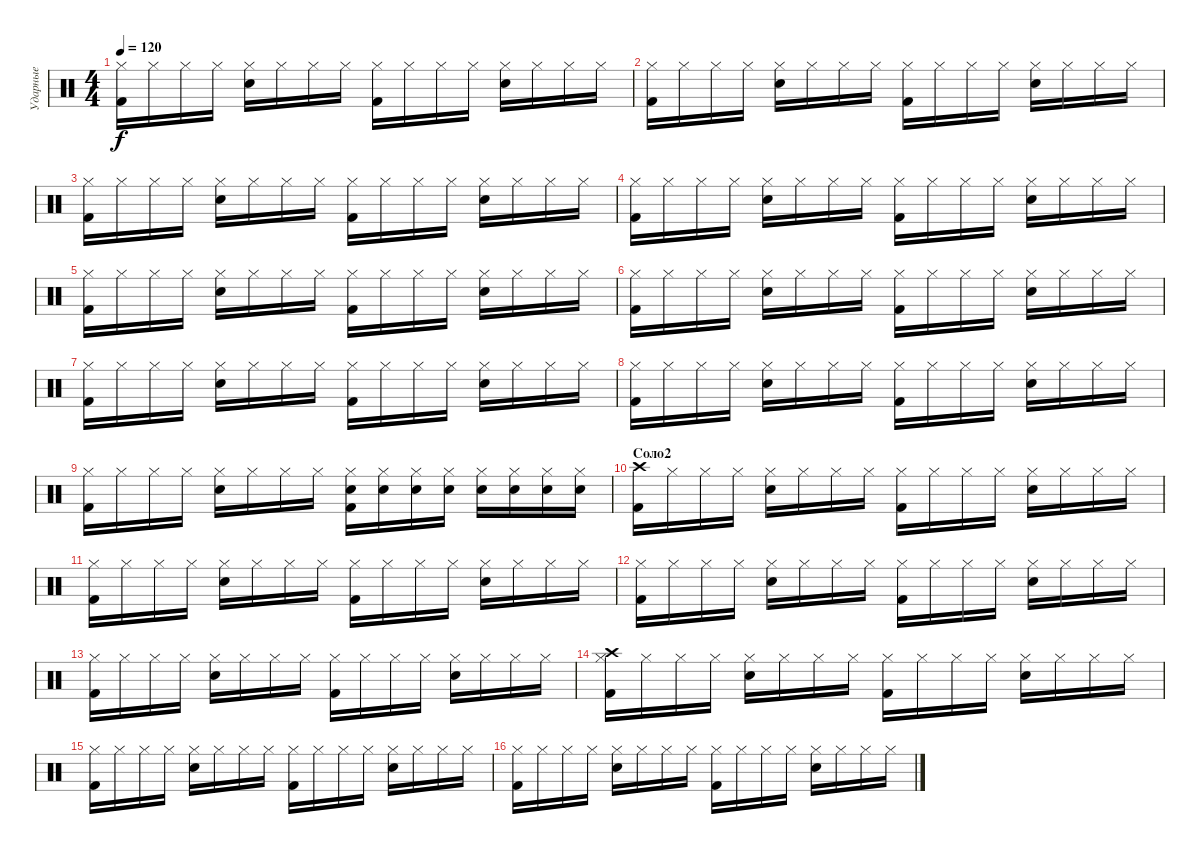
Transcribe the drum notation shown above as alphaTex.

\track ("Ударные" "Ударные") {instrument percussion}
\staff {score}
\articulation defaults
\ts (4 4)
\tempo 120
\clef neutral
\ks c
("Kick (hit) 2" "Hi-Hat (closed)").16{dy f} "Hi-Hat (closed)".16 "Hi-Hat (closed)".16 "Hi-Hat (closed)".16 ("Hi-Hat (closed)" "Snare (hit) 2").16 "Hi-Hat (closed)".16 "Hi-Hat (closed)".16 "Hi-Hat (closed)".16 ("Kick (hit) 2" "Hi-Hat (closed)").16 "Hi-Hat (closed)".16 "Hi-Hat (closed)".16 "Hi-Hat (closed)".16 ("Hi-Hat (closed)" "Snare (hit) 2").16 "Hi-Hat (closed)".16 "Hi-Hat (closed)".16 "Hi-Hat (closed)".16 |
("Kick (hit) 2" "Hi-Hat (closed)").16 "Hi-Hat (closed)".16 "Hi-Hat (closed)".16 "Hi-Hat (closed)".16 ("Hi-Hat (closed)" "Snare (hit) 2").16 "Hi-Hat (closed)".16 "Hi-Hat (closed)".16 "Hi-Hat (closed)".16 ("Kick (hit) 2" "Hi-Hat (closed)").16 "Hi-Hat (closed)".16 "Hi-Hat (closed)".16 "Hi-Hat (closed)".16 ("Hi-Hat (closed)" "Snare (hit) 2").16 "Hi-Hat (closed)".16 "Hi-Hat (closed)".16 "Hi-Hat (closed)".16 |
("Kick (hit) 2" "Hi-Hat (closed)").16 "Hi-Hat (closed)".16 "Hi-Hat (closed)".16 "Hi-Hat (closed)".16 ("Hi-Hat (closed)" "Snare (hit) 2").16 "Hi-Hat (closed)".16 "Hi-Hat (closed)".16 "Hi-Hat (closed)".16 ("Kick (hit) 2" "Hi-Hat (closed)").16 "Hi-Hat (closed)".16 "Hi-Hat (closed)".16 "Hi-Hat (closed)".16 ("Hi-Hat (closed)" "Snare (hit) 2").16 "Hi-Hat (closed)".16 "Hi-Hat (closed)".16 "Hi-Hat (closed)".16 |
("Kick (hit) 2" "Hi-Hat (closed)").16 "Hi-Hat (closed)".16 "Hi-Hat (closed)".16 "Hi-Hat (closed)".16 ("Hi-Hat (closed)" "Snare (hit) 2").16 "Hi-Hat (closed)".16 "Hi-Hat (closed)".16 "Hi-Hat (closed)".16 ("Kick (hit) 2" "Hi-Hat (closed)").16 "Hi-Hat (closed)".16 "Hi-Hat (closed)".16 "Hi-Hat (closed)".16 ("Hi-Hat (closed)" "Snare (hit) 2").16 "Hi-Hat (closed)".16 "Hi-Hat (closed)".16 "Hi-Hat (closed)".16 |
("Kick (hit) 2" "Hi-Hat (closed)").16 "Hi-Hat (closed)".16 "Hi-Hat (closed)".16 "Hi-Hat (closed)".16 ("Hi-Hat (closed)" "Snare (hit) 2").16 "Hi-Hat (closed)".16 "Hi-Hat (closed)".16 "Hi-Hat (closed)".16 ("Kick (hit) 2" "Hi-Hat (closed)").16 "Hi-Hat (closed)".16 "Hi-Hat (closed)".16 "Hi-Hat (closed)".16 ("Hi-Hat (closed)" "Snare (hit) 2").16 "Hi-Hat (closed)".16 "Hi-Hat (closed)".16 "Hi-Hat (closed)".16 |
("Kick (hit) 2" "Hi-Hat (closed)").16 "Hi-Hat (closed)".16 "Hi-Hat (closed)".16 "Hi-Hat (closed)".16 ("Hi-Hat (closed)" "Snare (hit) 2").16 "Hi-Hat (closed)".16 "Hi-Hat (closed)".16 "Hi-Hat (closed)".16 ("Kick (hit) 2" "Hi-Hat (closed)").16 "Hi-Hat (closed)".16 "Hi-Hat (closed)".16 "Hi-Hat (closed)".16 ("Hi-Hat (closed)" "Snare (hit) 2").16 "Hi-Hat (closed)".16 "Hi-Hat (closed)".16 "Hi-Hat (closed)".16 |
("Kick (hit) 2" "Hi-Hat (closed)").16 "Hi-Hat (closed)".16 "Hi-Hat (closed)".16 "Hi-Hat (closed)".16 ("Hi-Hat (closed)" "Snare (hit) 2").16 "Hi-Hat (closed)".16 "Hi-Hat (closed)".16 "Hi-Hat (closed)".16 ("Kick (hit) 2" "Hi-Hat (closed)").16 "Hi-Hat (closed)".16 "Hi-Hat (closed)".16 "Hi-Hat (closed)".16 ("Hi-Hat (closed)" "Snare (hit) 2").16 "Hi-Hat (closed)".16 "Hi-Hat (closed)".16 "Hi-Hat (closed)".16 |
("Kick (hit) 2" "Hi-Hat (closed)").16 "Hi-Hat (closed)".16 "Hi-Hat (closed)".16 "Hi-Hat (closed)".16 ("Hi-Hat (closed)" "Snare (hit) 2").16 "Hi-Hat (closed)".16 "Hi-Hat (closed)".16 "Hi-Hat (closed)".16 ("Kick (hit) 2" "Hi-Hat (closed)").16 "Hi-Hat (closed)".16 "Hi-Hat (closed)".16 "Hi-Hat (closed)".16 ("Hi-Hat (closed)" "Snare (hit) 2").16 "Hi-Hat (closed)".16 "Hi-Hat (closed)".16 "Hi-Hat (closed)".16 |
("Kick (hit) 2" "Hi-Hat (closed)").16 "Hi-Hat (closed)".16 "Hi-Hat (closed)".16 "Hi-Hat (closed)".16 ("Hi-Hat (closed)" "Snare (hit) 2").16 "Hi-Hat (closed)".16 "Hi-Hat (closed)".16 "Hi-Hat (closed)".16 ("Kick (hit) 2" "Hi-Hat (closed)" "Snare (hit) 2").16 ("Hi-Hat (closed)" "Snare (hit) 2").16 ("Hi-Hat (closed)" "Snare (hit) 2").16 ("Hi-Hat (closed)" "Snare (hit) 2").16 ("Hi-Hat (closed)" "Snare (hit) 2").16 ("Hi-Hat (closed)" "Snare (hit) 2").16 ("Hi-Hat (closed)" "Snare (hit) 2").16 ("Hi-Hat (closed)" "Snare (hit) 2").16 |
\section ("" "Соло2")
("Kick (hit) 2" "Crash high (hit)").16 "Hi-Hat (closed)".16 "Hi-Hat (closed)".16 "Hi-Hat (closed)".16 ("Hi-Hat (closed)" "Snare (hit) 2").16 "Hi-Hat (closed)".16 "Hi-Hat (closed)".16 "Hi-Hat (closed)".16 ("Kick (hit) 2" "Hi-Hat (closed)").16 "Hi-Hat (closed)".16 "Hi-Hat (closed)".16 "Hi-Hat (closed)".16 ("Hi-Hat (closed)" "Snare (hit) 2").16 "Hi-Hat (closed)".16 "Hi-Hat (closed)".16 "Hi-Hat (closed)".16 |
("Kick (hit) 2" "Hi-Hat (closed)").16 "Hi-Hat (closed)".16 "Hi-Hat (closed)".16 "Hi-Hat (closed)".16 ("Hi-Hat (closed)" "Snare (hit) 2").16 "Hi-Hat (closed)".16 "Hi-Hat (closed)".16 "Hi-Hat (closed)".16 ("Kick (hit) 2" "Hi-Hat (closed)").16 "Hi-Hat (closed)".16 "Hi-Hat (closed)".16 "Hi-Hat (closed)".16 ("Hi-Hat (closed)" "Snare (hit) 2").16 "Hi-Hat (closed)".16 "Hi-Hat (closed)".16 "Hi-Hat (closed)".16 |
("Kick (hit) 2" "Hi-Hat (closed)").16 "Hi-Hat (closed)".16 "Hi-Hat (closed)".16 "Hi-Hat (closed)".16 ("Hi-Hat (closed)" "Snare (hit) 2").16 "Hi-Hat (closed)".16 "Hi-Hat (closed)".16 "Hi-Hat (closed)".16 ("Kick (hit) 2" "Hi-Hat (closed)").16 "Hi-Hat (closed)".16 "Hi-Hat (closed)".16 "Hi-Hat (closed)".16 ("Hi-Hat (closed)" "Snare (hit) 2").16 "Hi-Hat (closed)".16 "Hi-Hat (closed)".16 "Hi-Hat (closed)".16 |
("Kick (hit) 2" "Hi-Hat (closed)").16 "Hi-Hat (closed)".16 "Hi-Hat (closed)".16 "Hi-Hat (closed)".16 ("Hi-Hat (closed)" "Snare (hit) 2").16 "Hi-Hat (closed)".16 "Hi-Hat (closed)".16 "Hi-Hat (closed)".16 ("Kick (hit) 2" "Hi-Hat (closed)").16 "Hi-Hat (closed)".16 "Hi-Hat (closed)".16 "Hi-Hat (closed)".16 ("Hi-Hat (closed)" "Snare (hit) 2").16 "Hi-Hat (closed)".16 "Hi-Hat (closed)".16 "Hi-Hat (closed)".16 |
("Kick (hit) 2" "Hi-Hat (closed)" "Crash high (hit)").16 "Hi-Hat (closed)".16 "Hi-Hat (closed)".16 "Hi-Hat (closed)".16 ("Hi-Hat (closed)" "Snare (hit) 2").16 "Hi-Hat (closed)".16 "Hi-Hat (closed)".16 "Hi-Hat (closed)".16 ("Kick (hit) 2" "Hi-Hat (closed)").16 "Hi-Hat (closed)".16 "Hi-Hat (closed)".16 "Hi-Hat (closed)".16 ("Hi-Hat (closed)" "Snare (hit) 2").16 "Hi-Hat (closed)".16 "Hi-Hat (closed)".16 "Hi-Hat (closed)".16 |
("Kick (hit) 2" "Hi-Hat (closed)").16 "Hi-Hat (closed)".16 "Hi-Hat (closed)".16 "Hi-Hat (closed)".16 ("Hi-Hat (closed)" "Snare (hit) 2").16 "Hi-Hat (closed)".16 "Hi-Hat (closed)".16 "Hi-Hat (closed)".16 ("Kick (hit) 2" "Hi-Hat (closed)").16 "Hi-Hat (closed)".16 "Hi-Hat (closed)".16 "Hi-Hat (closed)".16 ("Hi-Hat (closed)" "Snare (hit) 2").16 "Hi-Hat (closed)".16 "Hi-Hat (closed)".16 "Hi-Hat (closed)".16 |
("Kick (hit) 2" "Hi-Hat (closed)").16 "Hi-Hat (closed)".16 "Hi-Hat (closed)".16 "Hi-Hat (closed)".16 ("Hi-Hat (closed)" "Snare (hit) 2").16 "Hi-Hat (closed)".16 "Hi-Hat (closed)".16 "Hi-Hat (closed)".16 ("Kick (hit) 2" "Hi-Hat (closed)").16 "Hi-Hat (closed)".16 "Hi-Hat (closed)".16 "Hi-Hat (closed)".16 ("Hi-Hat (closed)" "Snare (hit) 2").16 "Hi-Hat (closed)".16 "Hi-Hat (closed)".16 "Hi-Hat (closed)".16
